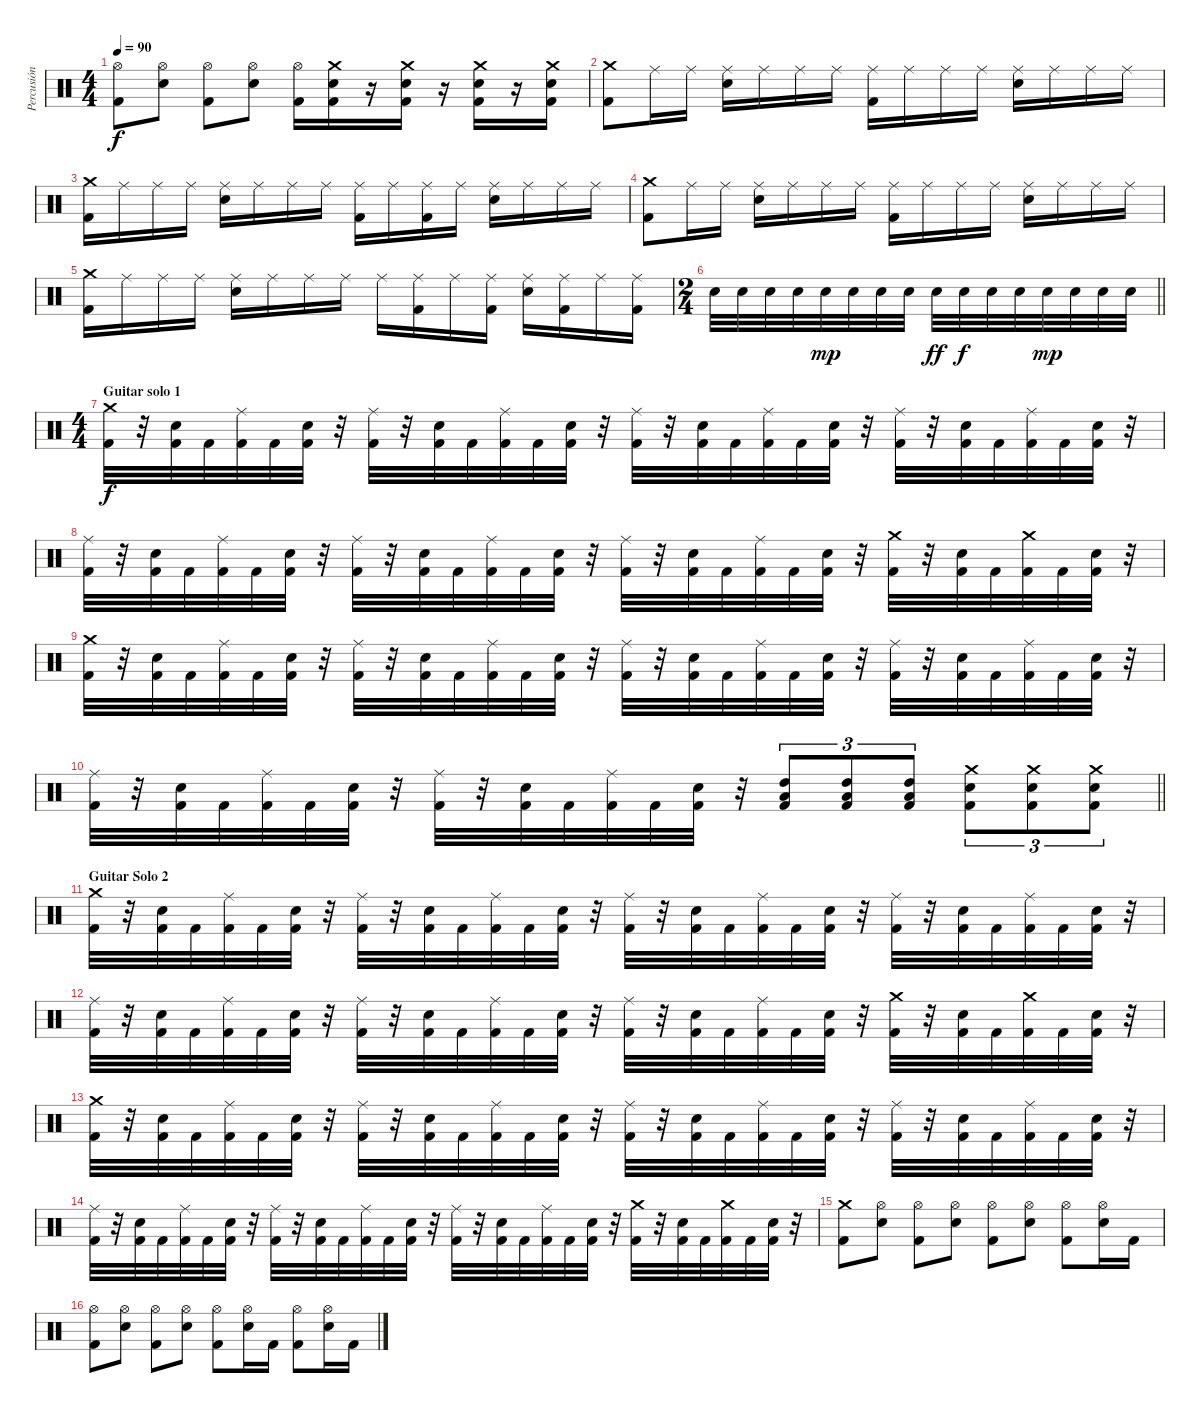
\track ("Percusión" "Percusión") {instrument percussion}
\staff {score}
\articulation defaults
\ts (4 4)
\tempo 90
\clef neutral
\ks c
("Hi-Hat (open)" "Kick (hit) 2").8{dy f} ("Hi-Hat (open)" "Snare (hit) 2").8 ("Hi-Hat (open)" "Kick (hit) 2").8 ("Hi-Hat (open)" "Snare (hit) 2").8 ("Hi-Hat (open)" "Kick (hit) 2").16 ("Crash medium (hit)" "Snare (hit) 2" "Kick (hit) 2").16 r.16 ("Crash medium (hit)" "Snare (hit) 2" "Kick (hit) 2").16 r.16 ("Crash medium (hit)" "Snare (hit) 2" "Kick (hit) 2").16 r.16 ("Crash medium (hit)" "Snare (hit) 2" "Kick (hit) 2").16 |
("Crash medium (hit)" "Kick (hit) 2").8 "Ride (middle)".16 "Ride (middle)".16 ("Ride (middle)" "Snare (hit) 2").16 "Ride (middle)".16 "Ride (middle)".16 "Ride (middle)".16 ("Ride (middle)" "Kick (hit) 2").16 "Ride (middle)".16 "Ride (middle)".16 "Ride (middle)".16 ("Ride (middle)" "Snare (hit) 2").16 "Ride (middle)".16 "Ride (middle)".16 "Ride (middle)".16 |
("Crash medium (hit)" "Kick (hit) 2").16 "Ride (middle)".16 "Ride (middle)".16 "Ride (middle)".16 ("Ride (middle)" "Snare (hit) 2").16 "Ride (middle)".16 "Ride (middle)".16 "Ride (middle)".16 ("Ride (middle)" "Kick (hit) 2").16 "Ride (middle)".16 ("Ride (middle)" "Kick (hit) 2").16 "Ride (middle)".16 ("Ride (middle)" "Snare (hit) 2").16 "Ride (middle)".16 "Ride (middle)".16 "Ride (middle)".16 |
("Crash medium (hit)" "Kick (hit) 2").8 "Ride (middle)".16 "Ride (middle)".16 ("Ride (middle)" "Snare (hit) 2").16 "Ride (middle)".16 "Ride (middle)".16 "Ride (middle)".16 ("Ride (middle)" "Kick (hit) 2").16 "Ride (middle)".16 "Ride (middle)".16 "Ride (middle)".16 ("Ride (middle)" "Snare (hit) 2").16 "Ride (middle)".16 "Ride (middle)".16 "Ride (middle)".16 |
("Crash medium (hit)" "Kick (hit) 2").16 "Ride (middle)".16 "Ride (middle)".16 "Ride (middle)".16 ("Ride (middle)" "Snare (hit) 2").16 "Ride (middle)".16 "Ride (middle)".16 "Ride (middle)".16 "Ride (middle)".16 ("Ride (middle)" "Kick (hit) 2").16 "Ride (middle)".16 ("Ride (middle)" "Kick (hit) 2").16 ("Ride (middle)" "Snare (hit) 2").16 ("Ride (middle)" "Kick (hit) 2").16 "Ride (middle)".16 ("Ride (middle)" "Kick (hit) 2").16 |
\ts (2 4)
\barLineRight lightlight "Snare (hit) 2".32 "Snare (hit) 2".32 "Snare (hit) 2".32 "Snare (hit) 2".32 "Snare (hit) 2".32{dy mp} "Snare (hit) 2".32 "Snare (hit) 2".32 "Snare (hit) 2".32 "Snare (hit) 2".32{dy ff} "Snare (hit) 2".32{dy f} "Snare (hit) 2".32 "Snare (hit) 2".32 "Snare (hit) 2".32{dy mp} "Snare (hit) 2".32 "Snare (hit) 2".32 "Snare (hit) 2".32
|
\ts (4 4)
\section ("" "Guitar solo 1")
("Crash medium (hit)" "Kick (hit) 2").32{dy f} r.32 ("Snare (hit) 2" "Kick (hit) 2").32 "Kick (hit) 2".32 ("Ride (middle)" "Kick (hit) 2").32 "Kick (hit) 2".32 ("Snare (hit) 2" "Kick (hit) 2").32 r.32 ("Ride (middle)" "Kick (hit) 2").32 r.32 ("Snare (hit) 2" "Kick (hit) 2").32 "Kick (hit) 2".32 ("Ride (middle)" "Kick (hit) 2").32 "Kick (hit) 2".32 ("Snare (hit) 2" "Kick (hit) 2").32 r.32 ("Ride (middle)" "Kick (hit) 2").32 r.32 ("Snare (hit) 2" "Kick (hit) 2").32 "Kick (hit) 2".32 ("Ride (middle)" "Kick (hit) 2").32 "Kick (hit) 2".32 ("Snare (hit) 2" "Kick (hit) 2").32 r.32 ("Ride (middle)" "Kick (hit) 2").32 r.32 ("Snare (hit) 2" "Kick (hit) 2").32 "Kick (hit) 2".32 ("Ride (middle)" "Kick (hit) 2").32 "Kick (hit) 2".32 ("Snare (hit) 2" "Kick (hit) 2").32 r.32 |
("Ride (middle)" "Kick (hit) 2").32 r.32 ("Snare (hit) 2" "Kick (hit) 2").32 "Kick (hit) 2".32 ("Ride (middle)" "Kick (hit) 2").32 "Kick (hit) 2".32 ("Snare (hit) 2" "Kick (hit) 2").32 r.32 ("Ride (middle)" "Kick (hit) 2").32 r.32 ("Snare (hit) 2" "Kick (hit) 2").32 "Kick (hit) 2".32 ("Ride (middle)" "Kick (hit) 2").32 "Kick (hit) 2".32 ("Snare (hit) 2" "Kick (hit) 2").32 r.32 ("Ride (middle)" "Kick (hit) 2").32 r.32 ("Snare (hit) 2" "Kick (hit) 2").32 "Kick (hit) 2".32 ("Ride (middle)" "Kick (hit) 2").32 "Kick (hit) 2".32 ("Snare (hit) 2" "Kick (hit) 2").32 r.32 ("Crash medium (hit)" "Kick (hit) 2").32 r.32 ("Snare (hit) 2" "Kick (hit) 2").32 "Kick (hit) 2".32 ("Crash medium (hit)" "Kick (hit) 2").32 "Kick (hit) 2".32 ("Snare (hit) 2" "Kick (hit) 2").32 r.32 |
("Crash medium (hit)" "Kick (hit) 2").32 r.32 ("Snare (hit) 2" "Kick (hit) 2").32 "Kick (hit) 2".32 ("Ride (middle)" "Kick (hit) 2").32 "Kick (hit) 2".32 ("Snare (hit) 2" "Kick (hit) 2").32 r.32 ("Ride (middle)" "Kick (hit) 2").32 r.32 ("Snare (hit) 2" "Kick (hit) 2").32 "Kick (hit) 2".32 ("Ride (middle)" "Kick (hit) 2").32 "Kick (hit) 2".32 ("Snare (hit) 2" "Kick (hit) 2").32 r.32 ("Ride (middle)" "Kick (hit) 2").32 r.32 ("Snare (hit) 2" "Kick (hit) 2").32 "Kick (hit) 2".32 ("Ride (middle)" "Kick (hit) 2").32 "Kick (hit) 2".32 ("Snare (hit) 2" "Kick (hit) 2").32 r.32 ("Ride (middle)" "Kick (hit) 2").32 r.32 ("Snare (hit) 2" "Kick (hit) 2").32 "Kick (hit) 2".32 ("Ride (middle)" "Kick (hit) 2").32 "Kick (hit) 2".32 ("Snare (hit) 2" "Kick (hit) 2").32 r.32 |
\barLineRight lightlight
("Ride (middle)" "Kick (hit) 2").32 r.32 ("Snare (hit) 2" "Kick (hit) 2").32 "Kick (hit) 2".32 ("Ride (middle)" "Kick (hit) 2").32 "Kick (hit) 2".32 ("Snare (hit) 2" "Kick (hit) 2").32 r.32 ("Ride (middle)" "Kick (hit) 2").32 r.32 ("Snare (hit) 2" "Kick (hit) 2").32 "Kick (hit) 2".32 ("Ride (middle)" "Kick (hit) 2").32 "Kick (hit) 2".32 ("Snare (hit) 2" "Kick (hit) 2").32 r.32 ("High Tom (hit)" "Low Floor Tom (hit)" "Kick (hit) 2").8{tu (3 2) bd 120} ("High Tom (hit)" "Low Floor Tom (hit)" "Kick (hit) 2").8{tu (3 2) bd 120} ("High Tom (hit)" "Low Floor Tom (hit)" "Kick (hit) 2").8{tu (3 2) bd 120} ("Crash medium (hit)" "Snare (hit) 2" "Kick (hit) 2").8{tu (3 2) bd 120} ("Crash medium (hit)" "Snare (hit) 2" "Kick (hit) 2").8{tu (3 2) bd 120} ("Crash medium (hit)" "Snare (hit) 2" "Kick (hit) 2").8{tu (3 2) bd 120} |
\section ("" "Guitar Solo 2")
("Crash medium (hit)" "Kick (hit) 2").32 r.32 ("Snare (hit) 2" "Kick (hit) 2").32 "Kick (hit) 2".32 ("Ride (middle)" "Kick (hit) 2").32 "Kick (hit) 2".32 ("Snare (hit) 2" "Kick (hit) 2").32 r.32 ("Ride (middle)" "Kick (hit) 2").32 r.32 ("Snare (hit) 2" "Kick (hit) 2").32 "Kick (hit) 2".32 ("Ride (middle)" "Kick (hit) 2").32 "Kick (hit) 2".32 ("Snare (hit) 2" "Kick (hit) 2").32 r.32 ("Ride (middle)" "Kick (hit) 2").32 r.32 ("Snare (hit) 2" "Kick (hit) 2").32 "Kick (hit) 2".32 ("Ride (middle)" "Kick (hit) 2").32 "Kick (hit) 2".32 ("Snare (hit) 2" "Kick (hit) 2").32 r.32 ("Ride (middle)" "Kick (hit) 2").32 r.32 ("Snare (hit) 2" "Kick (hit) 2").32 "Kick (hit) 2".32 ("Ride (middle)" "Kick (hit) 2").32 "Kick (hit) 2".32 ("Snare (hit) 2" "Kick (hit) 2").32 r.32 |
("Ride (middle)" "Kick (hit) 2").32 r.32 ("Snare (hit) 2" "Kick (hit) 2").32 "Kick (hit) 2".32 ("Ride (middle)" "Kick (hit) 2").32 "Kick (hit) 2".32 ("Snare (hit) 2" "Kick (hit) 2").32 r.32 ("Ride (middle)" "Kick (hit) 2").32 r.32 ("Snare (hit) 2" "Kick (hit) 2").32 "Kick (hit) 2".32 ("Ride (middle)" "Kick (hit) 2").32 "Kick (hit) 2".32 ("Snare (hit) 2" "Kick (hit) 2").32 r.32 ("Ride (middle)" "Kick (hit) 2").32 r.32 ("Snare (hit) 2" "Kick (hit) 2").32 "Kick (hit) 2".32 ("Ride (middle)" "Kick (hit) 2").32 "Kick (hit) 2".32 ("Snare (hit) 2" "Kick (hit) 2").32 r.32 ("Crash medium (hit)" "Kick (hit) 2").32 r.32 ("Snare (hit) 2" "Kick (hit) 2").32 "Kick (hit) 2".32 ("Crash medium (hit)" "Kick (hit) 2").32 "Kick (hit) 2".32 ("Snare (hit) 2" "Kick (hit) 2").32 r.32 |
("Crash medium (hit)" "Kick (hit) 2").32 r.32 ("Snare (hit) 2" "Kick (hit) 2").32 "Kick (hit) 2".32 ("Ride (middle)" "Kick (hit) 2").32 "Kick (hit) 2".32 ("Snare (hit) 2" "Kick (hit) 2").32 r.32 ("Ride (middle)" "Kick (hit) 2").32 r.32 ("Snare (hit) 2" "Kick (hit) 2").32 "Kick (hit) 2".32 ("Ride (middle)" "Kick (hit) 2").32 "Kick (hit) 2".32 ("Snare (hit) 2" "Kick (hit) 2").32 r.32 ("Ride (middle)" "Kick (hit) 2").32 r.32 ("Snare (hit) 2" "Kick (hit) 2").32 "Kick (hit) 2".32 ("Ride (middle)" "Kick (hit) 2").32 "Kick (hit) 2".32 ("Snare (hit) 2" "Kick (hit) 2").32 r.32 ("Ride (middle)" "Kick (hit) 2").32 r.32 ("Snare (hit) 2" "Kick (hit) 2").32 "Kick (hit) 2".32 ("Ride (middle)" "Kick (hit) 2").32 "Kick (hit) 2".32 ("Snare (hit) 2" "Kick (hit) 2").32 r.32 |
("Ride (middle)" "Kick (hit) 2").32 r.32 ("Snare (hit) 2" "Kick (hit) 2").32 "Kick (hit) 2".32 ("Ride (middle)" "Kick (hit) 2").32 "Kick (hit) 2".32 ("Snare (hit) 2" "Kick (hit) 2").32 r.32 ("Ride (middle)" "Kick (hit) 2").32 r.32 ("Snare (hit) 2" "Kick (hit) 2").32 "Kick (hit) 2".32 ("Ride (middle)" "Kick (hit) 2").32 "Kick (hit) 2".32 ("Snare (hit) 2" "Kick (hit) 2").32 r.32 ("Ride (middle)" "Kick (hit) 2").32 r.32 ("Snare (hit) 2" "Kick (hit) 2").32 "Kick (hit) 2".32 ("Ride (middle)" "Kick (hit) 2").32 "Kick (hit) 2".32 ("Snare (hit) 2" "Kick (hit) 2").32 r.32 ("Crash medium (hit)" "Kick (hit) 2").32 r.32 ("Snare (hit) 2" "Kick (hit) 2").32 "Kick (hit) 2".32 ("Crash medium (hit)" "Kick (hit) 2").32 "Kick (hit) 2".32 ("Snare (hit) 2" "Kick (hit) 2").32 r.32 |
("Crash medium (hit)" "Kick (hit) 2").8 ("Hi-Hat (open)" "Snare (hit) 2").8 ("Hi-Hat (open)" "Kick (hit) 2").8 ("Hi-Hat (open)" "Snare (hit) 2").8 ("Hi-Hat (open)" "Kick (hit) 2").8 ("Hi-Hat (open)" "Snare (hit) 2").8 ("Hi-Hat (open)" "Kick (hit) 2").8 ("Hi-Hat (open)" "Snare (hit) 2").16 "Kick (hit) 2".16 |
("Hi-Hat (open)" "Kick (hit) 2").8 ("Hi-Hat (open)" "Snare (hit) 2").8 ("Hi-Hat (open)" "Kick (hit) 2").8 ("Hi-Hat (open)" "Snare (hit) 2").8 ("Hi-Hat (open)" "Kick (hit) 2").8 ("Hi-Hat (open)" "Snare (hit) 2").16 "Kick (hit) 2".16 ("Hi-Hat (open)" "Kick (hit) 2").8 ("Hi-Hat (open)" "Snare (hit) 2").16 "Kick (hit) 2".16
